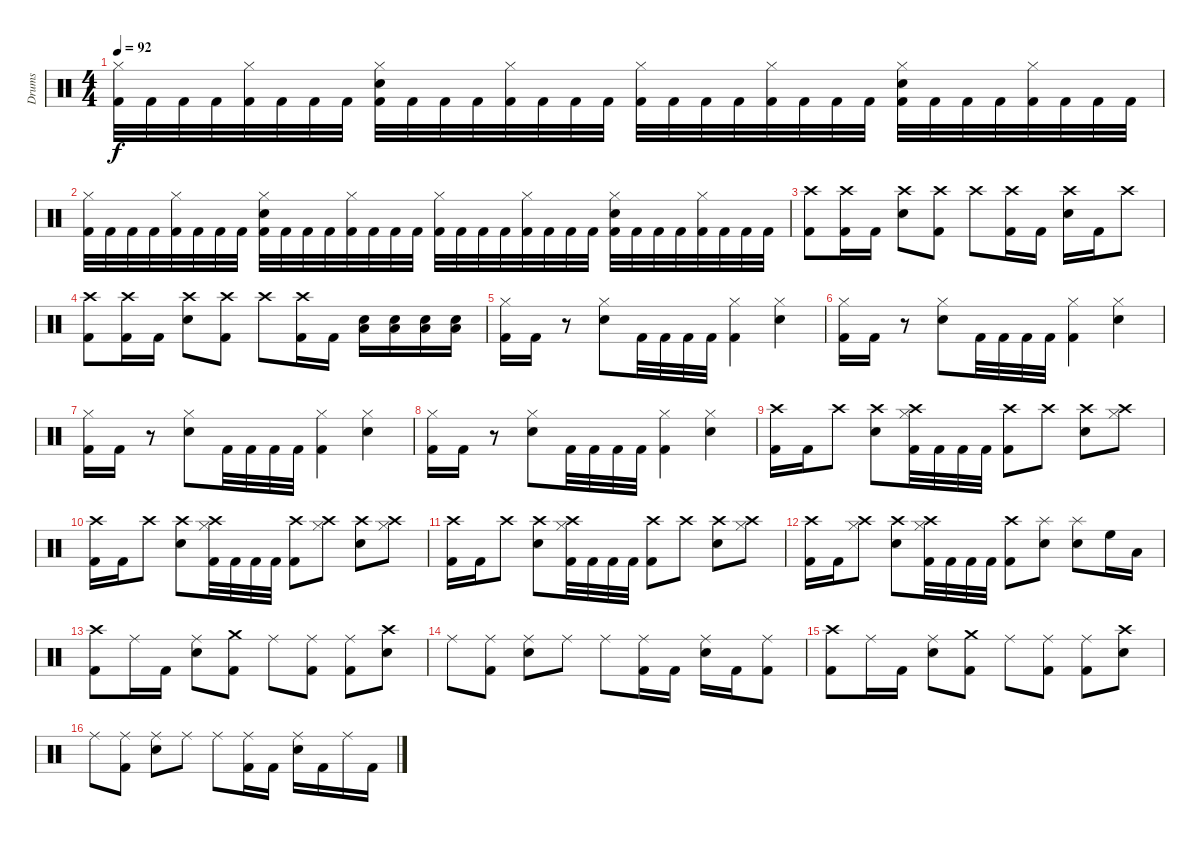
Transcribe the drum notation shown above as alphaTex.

\track ("Drums" "Drums") {instrument percussion}
\staff {score}
\articulation defaults
\ts (4 4)
\tempo 92
\clef neutral
\ks c
("Hi-Hat (closed)" "Kick (hit) 2").32{dy f} "Kick (hit) 2".32 "Kick (hit) 2".32 "Kick (hit) 2".32 ("Hi-Hat (closed)" "Kick (hit) 2").32 "Kick (hit) 2".32 "Kick (hit) 2".32 "Kick (hit) 2".32 ("Hi-Hat (closed)" "Snare (hit) 2" "Kick (hit) 2").32 "Kick (hit) 2".32 "Kick (hit) 2".32 "Kick (hit) 2".32 ("Hi-Hat (closed)" "Kick (hit) 2").32 "Kick (hit) 2".32 "Kick (hit) 2".32 "Kick (hit) 2".32 ("Hi-Hat (closed)" "Kick (hit) 2").32 "Kick (hit) 2".32 "Kick (hit) 2".32 "Kick (hit) 2".32 ("Hi-Hat (closed)" "Kick (hit) 2").32 "Kick (hit) 2".32 "Kick (hit) 2".32 "Kick (hit) 2".32 ("Hi-Hat (closed)" "Snare (hit) 2" "Kick (hit) 2").32 "Kick (hit) 2".32 "Kick (hit) 2".32 "Kick (hit) 2".32 ("Hi-Hat (closed)" "Kick (hit) 2").32 "Kick (hit) 2".32 "Kick (hit) 2".32 "Kick (hit) 2".32 |
("Hi-Hat (closed)" "Kick (hit) 2").32 "Kick (hit) 2".32 "Kick (hit) 2".32 "Kick (hit) 2".32 ("Hi-Hat (closed)" "Kick (hit) 2").32 "Kick (hit) 2".32 "Kick (hit) 2".32 "Kick (hit) 2".32 ("Hi-Hat (closed)" "Snare (hit) 2" "Kick (hit) 2").32 "Kick (hit) 2".32 "Kick (hit) 2".32 "Kick (hit) 2".32 ("Hi-Hat (closed)" "Kick (hit) 2").32 "Kick (hit) 2".32 "Kick (hit) 2".32 "Kick (hit) 2".32 ("Hi-Hat (closed)" "Kick (hit) 2").32 "Kick (hit) 2".32 "Kick (hit) 2".32 "Kick (hit) 2".32 ("Hi-Hat (closed)" "Kick (hit) 2").32 "Kick (hit) 2".32 "Kick (hit) 2".32 "Kick (hit) 2".32 ("Hi-Hat (closed)" "Snare (hit) 2" "Kick (hit) 2").32 "Kick (hit) 2".32 "Kick (hit) 2".32 "Kick (hit) 2".32 ("Hi-Hat (closed)" "Kick (hit) 2").32 "Kick (hit) 2".32 "Kick (hit) 2".32 "Kick (hit) 2".32 |
("Crash high (hit)" "Kick (hit) 2").8 ("Crash high (hit)" "Kick (hit) 2").16 "Kick (hit) 2".16 ("Crash high (hit)" "Snare (hit) 2").8 ("Crash high (hit)" "Kick (hit) 2").8 "Crash high (hit)".8 ("Crash high (hit)" "Kick (hit) 2").16 "Kick (hit) 2".16 ("Crash high (hit)" "Snare (hit) 2").16 "Kick (hit) 2".16 "Crash high (hit)".8 |
("Crash high (hit)" "Kick (hit) 2").8 ("Crash high (hit)" "Kick (hit) 2").16 "Kick (hit) 2".16 ("Crash high (hit)" "Snare (hit) 2").8 ("Crash high (hit)" "Kick (hit) 2").8 "Crash high (hit)".8 ("Crash high (hit)" "Kick (hit) 2").16 "Kick (hit) 2".16 ("Low Floor Tom (hit)" "Snare (hit) 2").16 ("Low Floor Tom (hit)" "Snare (hit) 2").16 ("Low Floor Tom (hit)" "Snare (hit) 2").16 ("Low Floor Tom (hit)" "Snare (hit) 2").16 |
("Hi-Hat (closed)" "Kick (hit) 2").16 "Kick (hit) 2".16 r.8 ("Hi-Hat (closed)" "Snare (hit) 2").8 "Kick (hit) 2".32 "Kick (hit) 2".32 "Kick (hit) 2".32 "Kick (hit) 2".32 ("Hi-Hat (closed)" "Kick (hit) 2").4 ("Hi-Hat (closed)" "Snare (hit) 2").4 |
("Hi-Hat (closed)" "Kick (hit) 2").16 "Kick (hit) 2".16 r.8 ("Hi-Hat (closed)" "Snare (hit) 2").8 "Kick (hit) 2".32 "Kick (hit) 2".32 "Kick (hit) 2".32 "Kick (hit) 2".32 ("Hi-Hat (closed)" "Kick (hit) 2").4 ("Hi-Hat (closed)" "Snare (hit) 2").4 |
("Hi-Hat (closed)" "Kick (hit) 2").16 "Kick (hit) 2".16 r.8 ("Hi-Hat (closed)" "Snare (hit) 2").8 "Kick (hit) 2".32 "Kick (hit) 2".32 "Kick (hit) 2".32 "Kick (hit) 2".32 ("Hi-Hat (closed)" "Kick (hit) 2").4 ("Hi-Hat (closed)" "Snare (hit) 2").4 |
("Hi-Hat (closed)" "Kick (hit) 2").16 "Kick (hit) 2".16 r.8 ("Hi-Hat (closed)" "Snare (hit) 2").8 "Kick (hit) 2".32 "Kick (hit) 2".32 "Kick (hit) 2".32 "Kick (hit) 2".32 ("Hi-Hat (closed)" "Kick (hit) 2").4 ("Hi-Hat (closed)" "Snare (hit) 2").4 |
("Crash high (hit)" "Kick (hit) 2").16 "Kick (hit) 2".16 "Crash high (hit)".8 ("Crash high (hit)" "Snare (hit) 2").8 ("Crash high (hit)" "Hi-Hat (closed)" "Kick (hit) 2").32 "Kick (hit) 2".32 "Kick (hit) 2".32 "Kick (hit) 2".32 ("Crash high (hit)" "Kick (hit) 2").8 "Crash high (hit)".8 ("Crash high (hit)" "Snare (hit) 2").8 ("Crash high (hit)" "Hi-Hat (closed)").8 |
("Crash high (hit)" "Kick (hit) 2").16 "Kick (hit) 2".16 "Crash high (hit)".8 ("Crash high (hit)" "Snare (hit) 2").8 ("Crash high (hit)" "Hi-Hat (closed)" "Kick (hit) 2").32 "Kick (hit) 2".32 "Kick (hit) 2".32 "Kick (hit) 2".32 ("Crash high (hit)" "Kick (hit) 2").8 ("Crash high (hit)" "Hi-Hat (closed)").8 ("Crash high (hit)" "Snare (hit) 2").8 ("Crash high (hit)" "Hi-Hat (closed)").8 |
("Crash high (hit)" "Kick (hit) 2").16 "Kick (hit) 2".16 "Crash high (hit)".8 ("Crash high (hit)" "Snare (hit) 2").8 ("Crash high (hit)" "Hi-Hat (closed)" "Kick (hit) 2").32 "Kick (hit) 2".32 "Kick (hit) 2".32 "Kick (hit) 2".32 ("Crash high (hit)" "Kick (hit) 2").8 "Crash high (hit)".8 ("Crash high (hit)" "Snare (hit) 2").8 ("Crash high (hit)" "Hi-Hat (closed)").8 |
("Crash high (hit)" "Kick (hit) 2").16 "Kick (hit) 2".16 ("Crash high (hit)" "Hi-Hat (closed)").8 ("Crash high (hit)" "Snare (hit) 2").8 ("Crash high (hit)" "Hi-Hat (closed)" "Kick (hit) 2").32 "Kick (hit) 2".32 "Kick (hit) 2".32 "Kick (hit) 2".32 ("Crash high (hit)" "Kick (hit) 2").8 ("Splash (hit)" "Snare (hit) 2").8 ("Splash (hit)" "Snare (hit) 2").8 "High Floor Tom (hit)".16 "Low Tom (hit)".16 |
("Crash high (hit)" "Kick (hit) 2").8 "Ride (middle)".16 "Kick (hit) 2".16 ("Ride (middle)" "Snare (hit) 2").8 ("Crash medium (hit)" "Kick (hit) 2").8 "Ride (middle)".8 ("Ride (middle)" "Kick (hit) 2").8 ("Ride (middle)" "Kick (hit) 2").8 ("Crash high (hit)" "Snare (hit) 2").8 |
"Ride (middle)".8 ("Ride (middle)" "Kick (hit) 2").8 ("Ride (middle)" "Snare (hit) 2").8 "Ride (middle)".8 "Ride (middle)".8 ("Ride (middle)" "Kick (hit) 2").16 "Kick (hit) 2".16 ("Ride (middle)" "Snare (hit) 2").16 "Kick (hit) 2".16 ("Ride (middle)" "Kick (hit) 2").8 |
("Crash high (hit)" "Kick (hit) 2").8 "Ride (middle)".16 "Kick (hit) 2".16 ("Ride (middle)" "Snare (hit) 2").8 ("Crash medium (hit)" "Kick (hit) 2").8 "Ride (middle)".8 ("Ride (middle)" "Kick (hit) 2").8 ("Ride (middle)" "Kick (hit) 2").8 ("Crash high (hit)" "Snare (hit) 2").8 |
"Ride (middle)".8 ("Ride (middle)" "Kick (hit) 2").8 ("Ride (middle)" "Snare (hit) 2").8 "Ride (middle)".8 "Ride (middle)".8 ("Ride (middle)" "Kick (hit) 2").16 "Kick (hit) 2".16 ("Ride (middle)" "Snare (hit) 2").16 "Kick (hit) 2".16 "Ride (middle)".16 "Kick (hit) 2".16
